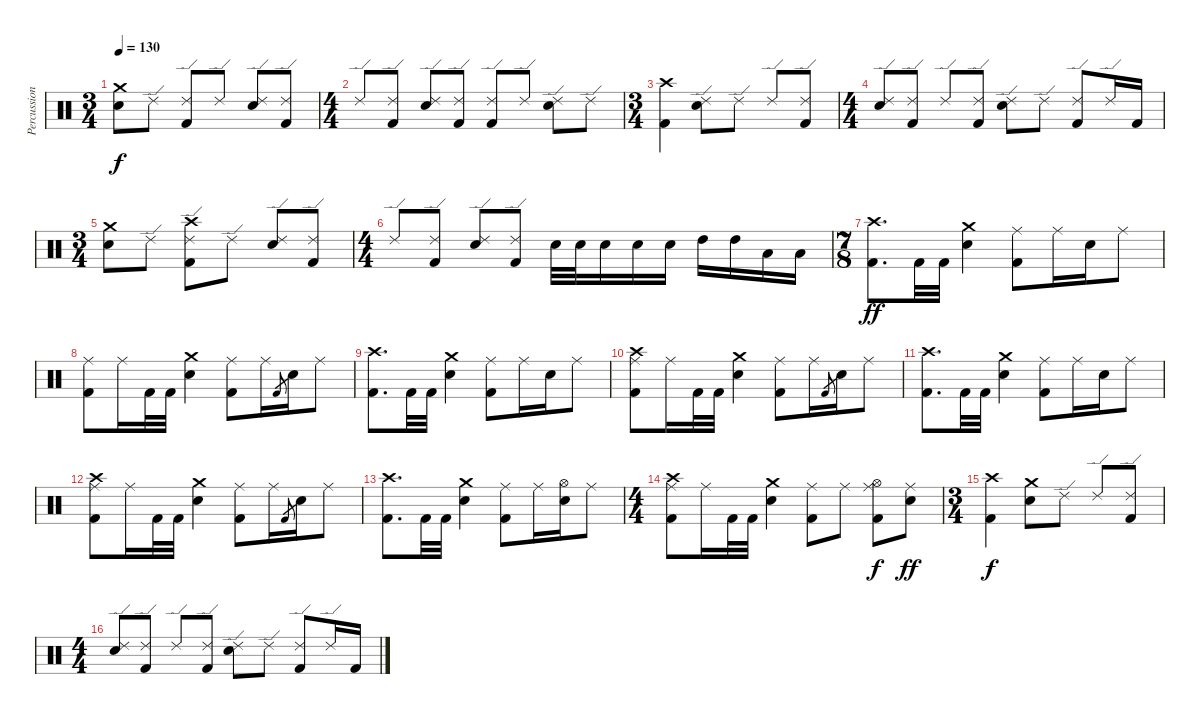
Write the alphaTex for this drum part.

\track ("Percussion" "Percussion") {instrument percussion}
\staff {score}
\articulation defaults
\ts (3 4)
\tempo 130
\clef neutral
\ks c
("Crash medium (hit)" "Electric Snare (hit)").8{dy f} "Ride (edge) 2".8 ("Ride (edge) 2" "Kick (hit) 2").8 "Ride (edge) 2".8 ("Ride (edge) 2" "Electric Snare (hit)").8 ("Ride (edge) 2" "Kick (hit) 2").8 |
\ts (4 4)
"Ride (edge) 2".8 ("Ride (edge) 2" "Kick (hit) 2").8 ("Ride (edge) 2" "Electric Snare (hit)").8 ("Ride (edge) 2" "Kick (hit) 2").8 ("Ride (edge) 2" "Kick (hit) 2").8 "Ride (edge) 2".8 ("Ride (edge) 2" "Electric Snare (hit)").8 "Ride (edge) 2".8 |
\ts (3 4)
("Crash high (hit)" "Kick (hit) 2").4 ("Ride (edge) 2" "Electric Snare (hit)").8 "Ride (edge) 2".8 "Ride (edge) 2".8 ("Ride (edge) 2" "Kick (hit) 2").8 |
\ts (4 4)
("Ride (edge) 2" "Electric Snare (hit)").8 ("Ride (edge) 2" "Kick (hit) 2").8 "Ride (edge) 2".8 ("Ride (edge) 2" "Kick (hit) 2").8 ("Ride (edge) 2" "Electric Snare (hit)").8 "Ride (edge) 2".8 ("Ride (edge) 2" "Kick (hit) 2").8 "Ride (edge) 2".16 "Kick (hit) 2".16 |
\ts (3 4)
("Crash medium (hit)" "Electric Snare (hit)").8 "Ride (edge) 2".8 ("Crash high (hit)" "Ride (edge) 2" "Kick (hit) 2").8 "Ride (edge) 2".8 ("Ride (edge) 2" "Electric Snare (hit)").8 ("Ride (edge) 2" "Kick (hit) 2").8 |
\ts (4 4)
"Ride (edge) 2".8 ("Ride (edge) 2" "Kick (hit) 2").8 ("Ride (edge) 2" "Electric Snare (hit)").8 ("Ride (edge) 2" "Kick (hit) 2").8 "Electric Snare (hit)".32 "Electric Snare (hit)".32 "Electric Snare (hit)".16 "Electric Snare (hit)".16 "Electric Snare (hit)".16 "High Tom (hit)".16 "High Tom (hit)".16 "Low Tom (hit)".16 "Low Tom (hit)".16 |
\ts (7 8)
("Crash high (hit)" "Kick (hit) 2").8{d dy ff} "Kick (hit) 2".32 "Kick (hit) 2".32 ("Crash medium (hit)" "Electric Snare (hit)").4 ("Ride (middle)" "Kick (hit) 2").8 "Ride (middle)".16 "Electric Snare (hit)".16 "Ride (middle)".8 |
("Ride (middle)" "Kick (hit) 2").8 "Ride (middle)".16 "Kick (hit) 2".32 "Kick (hit) 2".32 ("Crash medium (hit)" "Electric Snare (hit)").4 ("Ride (middle)" "Kick (hit) 2").8 "Ride (middle)".16 "Kick (hit) 2".8{gr} "Electric Snare (hit)".16 "Ride (middle)".8 |
("Crash high (hit)" "Kick (hit) 2").8{d} "Kick (hit) 2".32 "Kick (hit) 2".32 ("Crash medium (hit)" "Electric Snare (hit)").4 ("Ride (middle)" "Kick (hit) 2").8 "Ride (middle)".16 "Electric Snare (hit)".16 "Ride (middle)".8 |
("Crash high (hit)" "Ride (middle)" "Kick (hit) 2").8 "Ride (middle)".16 "Kick (hit) 2".32 "Kick (hit) 2".32 ("Crash medium (hit)" "Electric Snare (hit)").4 ("Ride (middle)" "Kick (hit) 2").8 "Ride (middle)".16 "Kick (hit) 2".8{gr} "Electric Snare (hit)".16 "Ride (middle)".8 |
("Crash high (hit)" "Kick (hit) 2").8{d} "Kick (hit) 2".32 "Kick (hit) 2".32 ("Crash medium (hit)" "Electric Snare (hit)").4 ("Ride (middle)" "Kick (hit) 2").8 "Ride (middle)".16 "Electric Snare (hit)".16 "Ride (middle)".8 |
("Crash high (hit)" "Ride (middle)" "Kick (hit) 2").8 "Ride (middle)".16 "Kick (hit) 2".32 "Kick (hit) 2".32 ("Crash medium (hit)" "Electric Snare (hit)").4 ("Ride (middle)" "Kick (hit) 2").8 "Ride (middle)".16 "Kick (hit) 2".8{gr} "Electric Snare (hit)".16 "Ride (middle)".8 |
("Crash high (hit)" "Kick (hit) 2").8{d} "Kick (hit) 2".32 "Kick (hit) 2".32 ("Crash medium (hit)" "Electric Snare (hit)").4 ("Ride (middle)" "Kick (hit) 2").8 "Ride (middle)".16 ("Hi-Hat (open)" "Electric Snare (hit)").16 "Ride (middle)".8 |
\ts (4 4)
("Crash high (hit)" "Ride (middle)" "Kick (hit) 2").8 "Ride (middle)".16 "Kick (hit) 2".32 "Kick (hit) 2".32 ("Crash medium (hit)" "Electric Snare (hit)").4 ("Ride (middle)" "Kick (hit) 2").8 "Ride (middle)".8 ("Hi-Hat (open)" "Ride (middle)" "Kick (hit) 2").8{dy f} ("Ride (middle)" "Electric Snare (hit)").8{dy ff} |
\ts (3 4)
("Crash high (hit)" "Kick (hit) 2").4{dy f} ("Crash medium (hit)" "Electric Snare (hit)").8 "Ride (edge) 2".8 "Ride (edge) 2".8 ("Ride (edge) 2" "Kick (hit) 2").8 |
\ts (4 4)
("Ride (edge) 2" "Electric Snare (hit)").8 ("Ride (edge) 2" "Kick (hit) 2").8 "Ride (edge) 2".8 ("Ride (edge) 2" "Kick (hit) 2").8 ("Ride (edge) 2" "Electric Snare (hit)").8 "Ride (edge) 2".8 ("Ride (edge) 2" "Kick (hit) 2").8 "Ride (edge) 2".16 "Kick (hit) 2".16
